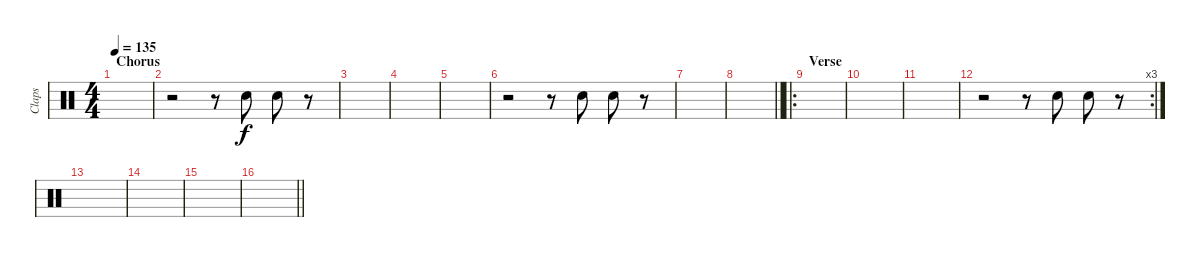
\track ("Claps" "Claps") {instrument percussion}
\staff {score}
\articulation defaults
\ts (4 4)
\section ("" "Chorus")
\tempo 135
\clef neutral
\ks c
|
r.2 r.8 "Hand Clap (hit)".8 "Hand Clap (hit)".8 r.8 |
|
|
|
r.2 r.8 "Hand Clap (hit)".8 "Hand Clap (hit)".8 r.8 |
|
\barLineRight lightlight
|
\ro
\section ("" "Verse")
|
|
|
\rc 3
r.2 r.8 "Hand Clap (hit)".8 "Hand Clap (hit)".8 r.8 |
|
|
|
\barLineRight lightlight
